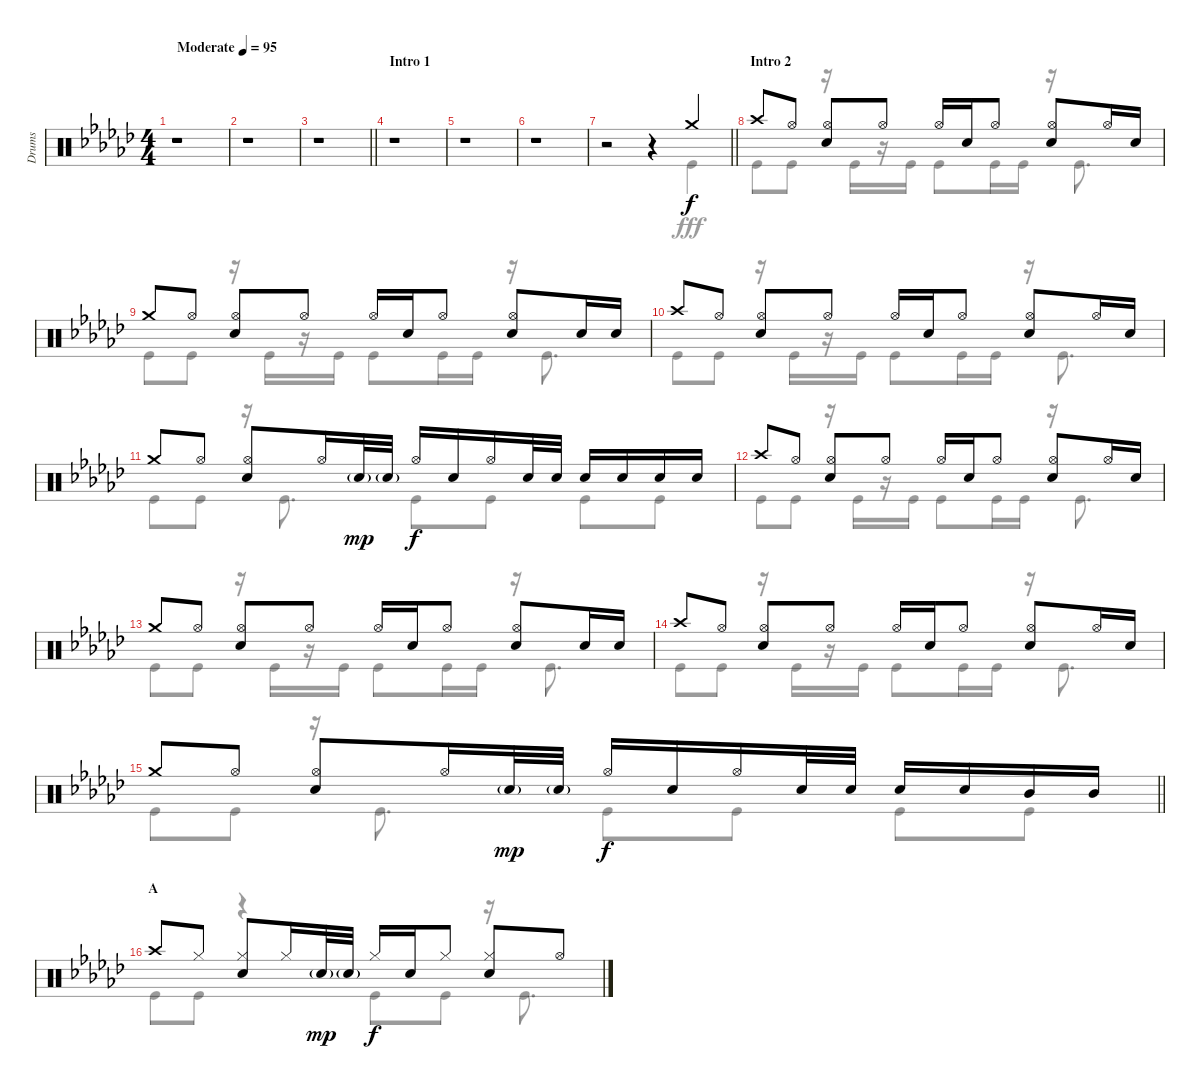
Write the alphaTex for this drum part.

\track ("Drums" "Drums") {instrument percussion}
\staff {score}
\articulation defaults
\voice
\ts (4 4)
\tempo (95 "Moderate")
\clef neutral
\ks gb
r.1{dy f} |
r.1 |
\barLineRight lightlight
r.1 |
\section ("" "Intro 1")
r.1 |
r.1 |
r.1 |
\barLineRight lightlight
r.2 r.4 "Crash medium (hit)".4 |
\section ("" "Intro 2")
"Crash high (hit)".8 "Hi-Hat (open)".8 ("Hi-Hat (open)" "Snare (hit) 2").8 "Hi-Hat (open)".8 "Hi-Hat (open)".16 "Snare (hit) 2".16 "Hi-Hat (open)".8 ("Hi-Hat (open)" "Snare (hit) 2").8 "Hi-Hat (open)".16 "Snare (hit) 2".16 |
"Crash medium (hit)".8 "Hi-Hat (open)".8 ("Hi-Hat (open)" "Snare (hit) 2").8 "Hi-Hat (open)".8 "Hi-Hat (open)".16 "Snare (hit) 2".16 "Hi-Hat (open)".8 ("Hi-Hat (open)" "Snare (hit) 2").8 "Snare (hit) 2".16 "Snare (hit) 2".16 |
"Crash high (hit)".8 "Hi-Hat (open)".8 ("Hi-Hat (open)" "Snare (hit) 2").8 "Hi-Hat (open)".8 "Hi-Hat (open)".16 "Snare (hit) 2".16 "Hi-Hat (open)".8 ("Hi-Hat (open)" "Snare (hit) 2").8 "Hi-Hat (open)".16 "Snare (hit) 2".16 |
"Crash medium (hit)".8 "Hi-Hat (open)".8 ("Hi-Hat (open)" "Snare (hit) 2").8 "Hi-Hat (open)".16 "Snare (hit) 2"{g}.32{dy mp} "Snare (hit) 2"{g}.32 "Hi-Hat (open)".16{dy f} "Snare (hit) 2".16 "Hi-Hat (open)".16 "Snare (hit) 2".32 "Snare (hit) 2".32 "Snare (hit) 2".16 "Snare (hit) 2".16 "Snare (hit) 2".16 "Snare (hit) 2".16 |
"Crash high (hit)".8 "Hi-Hat (open)".8 ("Hi-Hat (open)" "Snare (hit) 2").8 "Hi-Hat (open)".8 "Hi-Hat (open)".16 "Snare (hit) 2".16 "Hi-Hat (open)".8 ("Hi-Hat (open)" "Snare (hit) 2").8 "Hi-Hat (open)".16 "Snare (hit) 2".16 |
"Crash medium (hit)".8 "Hi-Hat (open)".8 ("Hi-Hat (open)" "Snare (hit) 2").8 "Hi-Hat (open)".8 "Hi-Hat (open)".16 "Snare (hit) 2".16 "Hi-Hat (open)".8 ("Hi-Hat (open)" "Snare (hit) 2").8 "Snare (hit) 2".16 "Snare (hit) 2".16 |
"Crash high (hit)".8 "Hi-Hat (open)".8 ("Hi-Hat (open)" "Snare (hit) 2").8 "Hi-Hat (open)".8 "Hi-Hat (open)".16 "Snare (hit) 2".16 "Hi-Hat (open)".8 ("Hi-Hat (open)" "Snare (hit) 2").8 "Hi-Hat (open)".16 "Snare (hit) 2".16 |
\barLineRight lightlight "Crash medium (hit)".8 "Hi-Hat (open)".8
("Hi-Hat (open)" "Snare (hit) 2").8 "Hi-Hat (open)".16 "Snare (hit) 2"{g}.32{dy mp} "Snare (hit) 2"{g}.32 "Hi-Hat (open)".16{dy f} "Snare (hit) 2".16 "Hi-Hat (open)".16 "Snare (hit) 2".32 "Snare (hit) 2".32 "Snare (hit) 2".16 "Snare (hit) 2".16 "Mid Tom (hit)".16 "Mid Tom (hit)".16 |
\section ("" "A")
"Crash high (hit)".8 "Hi-Hat (closed)".8 ("Hi-Hat (closed)" "Snare (hit) 2").8 "Hi-Hat (closed)".16 "Snare (hit) 2"{g}.32{dy mp} "Snare (hit) 2"{g}.32 "Hi-Hat (closed)".16{dy f} "Snare (hit) 2".16 "Hi-Hat (closed)".8 ("Hi-Hat (closed)" "Snare (hit) 2").8 "Hi-Hat (open)".8
\voice
\clef neutral
\ottava regular
\simile none
\ks gb
r.1{dy fff} |
r.1 |
\barLineRight lightlight
r.1 |
r.1 |
r.1 |
r.1 |
\barLineRight lightlight
r.2 r.4 "Kick (hit)".4 |
"Kick (hit)".8 "Kick (hit)".8 r.16 "Kick (hit)".16 r.16 "Kick (hit)".16 "Kick (hit)".8 "Kick (hit)".16 "Kick (hit)".16 r.16 "Kick (hit)".8{d} |
"Kick (hit)".8 "Kick (hit)".8 r.16 "Kick (hit)".16 r.16 "Kick (hit)".16 "Kick (hit)".8 "Kick (hit)".16 "Kick (hit)".16 r.16 "Kick (hit)".8{d} |
"Kick (hit)".8 "Kick (hit)".8 r.16 "Kick (hit)".16 r.16 "Kick (hit)".16 "Kick (hit)".8 "Kick (hit)".16 "Kick (hit)".16 r.16 "Kick (hit)".8{d} |
"Kick (hit)".8 "Kick (hit)".8 r.16 "Kick (hit)".8{d} "Kick (hit)".8 "Kick (hit)".8 "Kick (hit)".8 "Kick (hit)".8 |
"Kick (hit)".8 "Kick (hit)".8 r.16 "Kick (hit)".16 r.16 "Kick (hit)".16 "Kick (hit)".8 "Kick (hit)".16 "Kick (hit)".16 r.16 "Kick (hit)".8{d} |
"Kick (hit)".8 "Kick (hit)".8 r.16 "Kick (hit)".16 r.16 "Kick (hit)".16 "Kick (hit)".8 "Kick (hit)".16 "Kick (hit)".16 r.16 "Kick (hit)".8{d} |
"Kick (hit)".8 "Kick (hit)".8 r.16 "Kick (hit)".16 r.16 "Kick (hit)".16 "Kick (hit)".8 "Kick (hit)".16 "Kick (hit)".16 r.16 "Kick (hit)".8{d} |
\barLineRight lightlight "Kick (hit)".8 "Kick (hit)".8
r.16 "Kick (hit)".8{d} "Kick (hit)".8 "Kick (hit)".8 "Kick (hit)".8 "Kick (hit)".8 |
"Kick (hit)".8 "Kick (hit)".8 r.4 "Kick (hit)".8 "Kick (hit)".8 r.16 "Kick (hit)".8{d}
